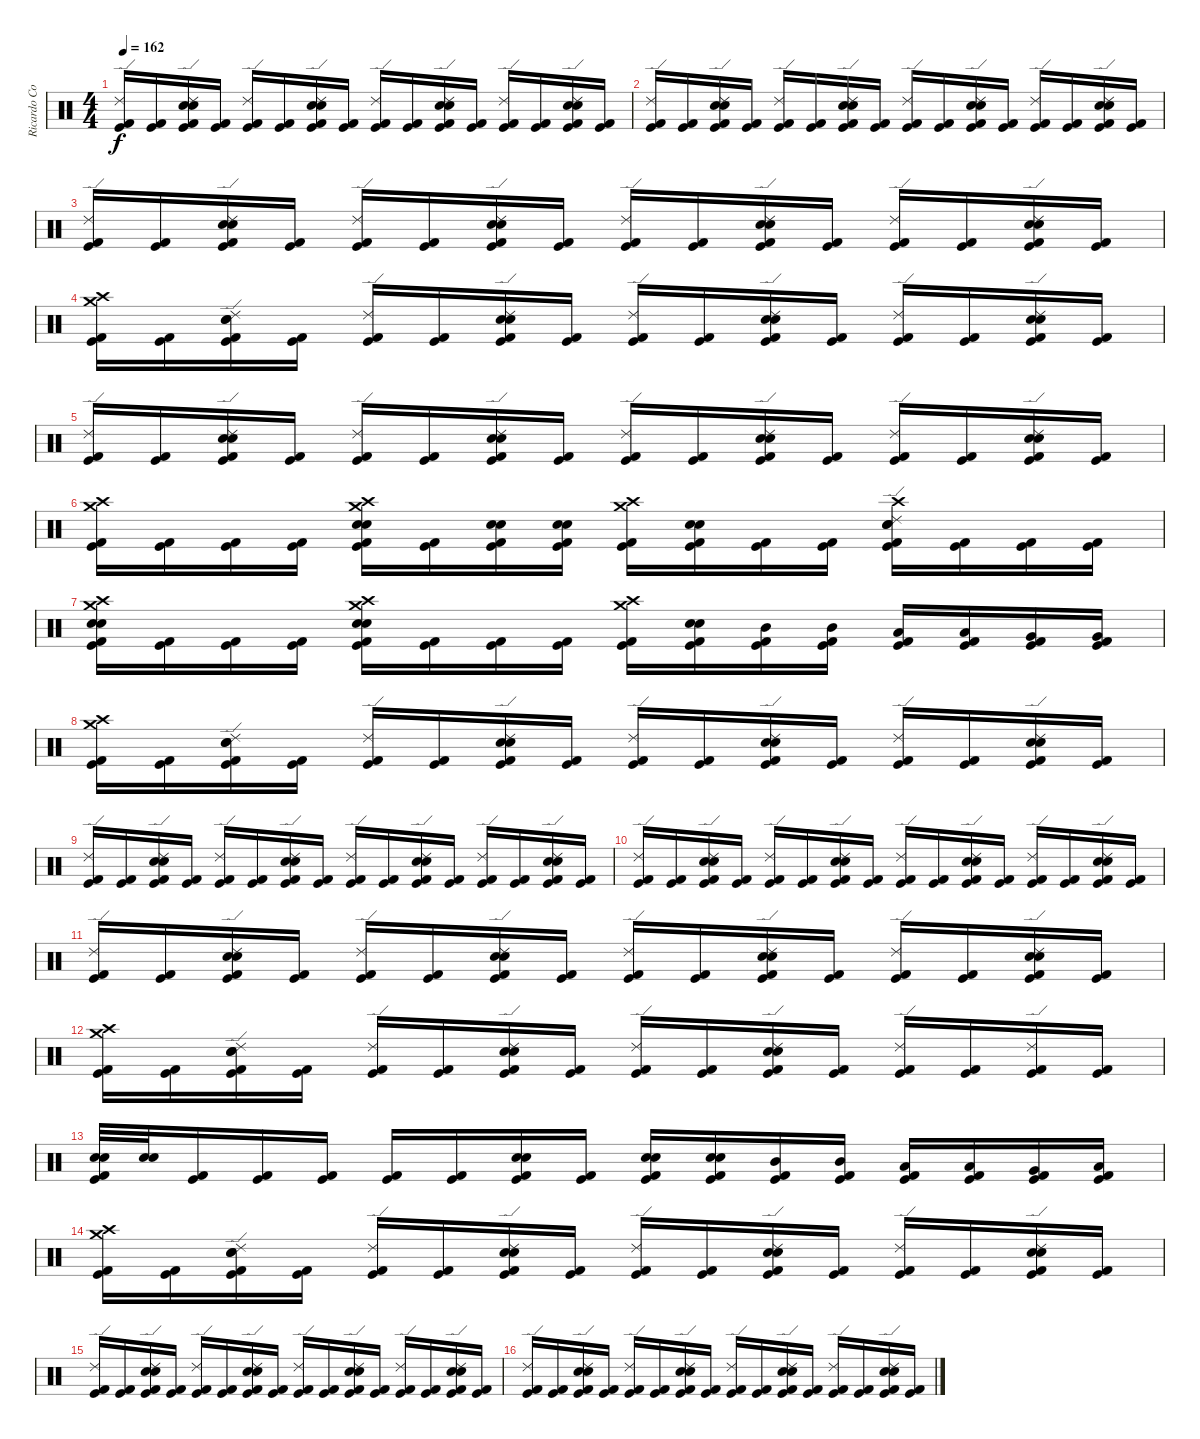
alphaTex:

\track ("Ricardo Confessori" "Ricardo Co") {instrument percussion}
\staff {score}
\articulation defaults
\ts (4 4)
\tempo 162
\clef neutral
\ks c
("Ride (edge) 2" "Kick (hit) 2" "Kick (hit)").16{dy f} ("Kick (hit) 2" "Kick (hit)").16 ("Ride (edge) 2" "Snare (hit) 2" "Electric Snare (hit)" "Kick (hit) 2" "Kick (hit)").16 ("Kick (hit) 2" "Kick (hit)").16 ("Ride (edge) 2" "Kick (hit) 2" "Kick (hit)").16 ("Kick (hit) 2" "Kick (hit)").16 ("Ride (edge) 2" "Electric Snare (hit)" "Snare (hit) 2" "Kick (hit) 2" "Kick (hit)").16 ("Kick (hit) 2" "Kick (hit)").16 ("Ride (edge) 2" "Kick (hit) 2" "Kick (hit)").16 ("Kick (hit) 2" "Kick (hit)").16 ("Ride (edge) 2" "Snare (hit) 2" "Electric Snare (hit)" "Kick (hit) 2" "Kick (hit)").16 ("Kick (hit) 2" "Kick (hit)").16 ("Ride (edge) 2" "Kick (hit) 2" "Kick (hit)").16 ("Kick (hit) 2" "Kick (hit)").16 ("Ride (edge) 2" "Electric Snare (hit)" "Snare (hit) 2" "Kick (hit) 2" "Kick (hit)").16 ("Kick (hit) 2" "Kick (hit)").16 |
("Ride (edge) 2" "Kick (hit) 2" "Kick (hit)").16 ("Kick (hit) 2" "Kick (hit)").16 ("Ride (edge) 2" "Snare (hit) 2" "Electric Snare (hit)" "Kick (hit) 2" "Kick (hit)").16 ("Kick (hit) 2" "Kick (hit)").16 ("Ride (edge) 2" "Kick (hit) 2" "Kick (hit)").16 ("Kick (hit) 2" "Kick (hit)").16 ("Ride (edge) 2" "Electric Snare (hit)" "Snare (hit) 2" "Kick (hit) 2" "Kick (hit)").16 ("Kick (hit) 2" "Kick (hit)").16 ("Ride (edge) 2" "Kick (hit) 2" "Kick (hit)").16 ("Kick (hit) 2" "Kick (hit)").16 ("Ride (edge) 2" "Snare (hit) 2" "Electric Snare (hit)" "Kick (hit) 2" "Kick (hit)").16 ("Kick (hit) 2" "Kick (hit)").16 ("Ride (edge) 2" "Kick (hit) 2" "Kick (hit)").16 ("Kick (hit) 2" "Kick (hit)").16 ("Ride (edge) 2" "Electric Snare (hit)" "Snare (hit) 2" "Kick (hit) 2" "Kick (hit)").16 ("Kick (hit) 2" "Kick (hit)").16 |
("Ride (edge) 2" "Kick (hit) 2" "Kick (hit)").16 ("Kick (hit) 2" "Kick (hit)").16 ("Ride (edge) 2" "Snare (hit) 2" "Electric Snare (hit)" "Kick (hit) 2" "Kick (hit)").16 ("Kick (hit) 2" "Kick (hit)").16 ("Ride (edge) 2" "Kick (hit) 2" "Kick (hit)").16 ("Kick (hit) 2" "Kick (hit)").16 ("Ride (edge) 2" "Electric Snare (hit)" "Snare (hit) 2" "Kick (hit) 2" "Kick (hit)").16 ("Kick (hit) 2" "Kick (hit)").16 ("Ride (edge) 2" "Kick (hit) 2" "Kick (hit)").16 ("Kick (hit) 2" "Kick (hit)").16 ("Ride (edge) 2" "Snare (hit) 2" "Electric Snare (hit)" "Kick (hit) 2" "Kick (hit)").16 ("Kick (hit) 2" "Kick (hit)").16 ("Ride (edge) 2" "Kick (hit) 2" "Kick (hit)").16 ("Kick (hit) 2" "Kick (hit)").16 ("Ride (edge) 2" "Electric Snare (hit)" "Snare (hit) 2" "Kick (hit) 2" "Kick (hit)").16 ("Kick (hit) 2" "Kick (hit)").16 |
("Crash high (hit)" "Crash medium (hit)" "Kick (hit) 2" "Kick (hit)").16 ("Kick (hit) 2" "Kick (hit)").16 ("Ride (edge) 2" "Snare (hit) 2" "Electric Snare (hit)" "Kick (hit) 2" "Kick (hit)").16 ("Kick (hit) 2" "Kick (hit)").16 ("Ride (edge) 2" "Kick (hit) 2" "Kick (hit)").16 ("Kick (hit) 2" "Kick (hit)").16 ("Ride (edge) 2" "Electric Snare (hit)" "Snare (hit) 2" "Kick (hit) 2" "Kick (hit)").16 ("Kick (hit) 2" "Kick (hit)").16 ("Ride (edge) 2" "Kick (hit) 2" "Kick (hit)").16 ("Kick (hit) 2" "Kick (hit)").16 ("Ride (edge) 2" "Snare (hit) 2" "Electric Snare (hit)" "Kick (hit) 2" "Kick (hit)").16 ("Kick (hit) 2" "Kick (hit)").16 ("Ride (edge) 2" "Kick (hit) 2" "Kick (hit)").16 ("Kick (hit) 2" "Kick (hit)").16 ("Ride (edge) 2" "Electric Snare (hit)" "Snare (hit) 2" "Kick (hit) 2" "Kick (hit)").16 ("Kick (hit) 2" "Kick (hit)").16 |
("Ride (edge) 2" "Kick (hit) 2" "Kick (hit)").16 ("Kick (hit) 2" "Kick (hit)").16 ("Ride (edge) 2" "Snare (hit) 2" "Electric Snare (hit)" "Kick (hit) 2" "Kick (hit)").16 ("Kick (hit) 2" "Kick (hit)").16 ("Ride (edge) 2" "Kick (hit) 2" "Kick (hit)").16 ("Kick (hit) 2" "Kick (hit)").16 ("Ride (edge) 2" "Electric Snare (hit)" "Snare (hit) 2" "Kick (hit) 2" "Kick (hit)").16 ("Kick (hit) 2" "Kick (hit)").16 ("Ride (edge) 2" "Kick (hit) 2" "Kick (hit)").16 ("Kick (hit) 2" "Kick (hit)").16 ("Ride (edge) 2" "Snare (hit) 2" "Electric Snare (hit)" "Kick (hit) 2" "Kick (hit)").16 ("Kick (hit) 2" "Kick (hit)").16 ("Ride (edge) 2" "Kick (hit) 2" "Kick (hit)").16 ("Kick (hit) 2" "Kick (hit)").16 ("Ride (edge) 2" "Electric Snare (hit)" "Snare (hit) 2" "Kick (hit) 2" "Kick (hit)").16 ("Kick (hit) 2" "Kick (hit)").16 |
("Crash high (hit)" "Crash medium (hit)" "Kick (hit) 2" "Kick (hit)").16 ("Kick (hit) 2" "Kick (hit)").16 ("Kick (hit) 2" "Kick (hit)").16 ("Kick (hit) 2" "Kick (hit)").16 ("Electric Snare (hit)" "Snare (hit) 2" "Crash high (hit)" "Crash medium (hit)" "Kick (hit) 2" "Kick (hit)").16 ("Kick (hit) 2" "Kick (hit)").16 ("Snare (hit) 2" "Electric Snare (hit)" "Kick (hit) 2" "Kick (hit)").16 ("Electric Snare (hit)" "Snare (hit) 2" "Kick (hit) 2" "Kick (hit)").16 ("Crash high (hit)" "Crash medium (hit)" "Kick (hit) 2" "Kick (hit)").16 ("Electric Snare (hit)" "Snare (hit) 2" "Kick (hit) 2" "Kick (hit)").16 ("Kick (hit) 2" "Kick (hit)").16 ("Kick (hit) 2" "Kick (hit)").16 ("Electric Snare (hit)" "Crash high (hit)" "Snare (hit) 2" "Ride (edge) 2" "Kick (hit) 2" "Kick (hit)").16 ("Kick (hit) 2" "Kick (hit)").16 ("Kick (hit) 2" "Kick (hit)").16 ("Kick (hit) 2" "Kick (hit)").16 |
("Electric Snare (hit)" "Snare (hit) 2" "Crash high (hit)" "Crash medium (hit)" "Kick (hit) 2" "Kick (hit)").16 ("Kick (hit) 2" "Kick (hit)").16 ("Kick (hit) 2" "Kick (hit)").16 ("Kick (hit) 2" "Kick (hit)").16 ("Crash high (hit)" "Electric Snare (hit)" "Snare (hit) 2" "Crash medium (hit)" "Kick (hit) 2" "Kick (hit)").16 ("Kick (hit) 2" "Kick (hit)").16 ("Kick (hit) 2" "Kick (hit)").16 ("Kick (hit) 2" "Kick (hit)").16 ("Crash high (hit)" "Crash medium (hit)" "Kick (hit) 2" "Kick (hit)").16 ("Snare (hit) 2" "Electric Snare (hit)" "Kick (hit) 2" "Kick (hit)").16 ("Mid Tom (hit)" "Kick (hit) 2" "Kick (hit)").16 ("Mid Tom (hit)" "Kick (hit) 2" "Kick (hit)").16 ("Low Tom (hit)" "Kick (hit) 2" "Kick (hit)").16 ("Low Tom (hit)" "Kick (hit) 2" "Kick (hit)").16 ("Very Low Tom (hit)" "Kick (hit) 2" "Kick (hit)").16 ("Very Low Tom (hit)" "Kick (hit) 2" "Kick (hit)").16 |
("Crash high (hit)" "Crash medium (hit)" "Kick (hit) 2" "Kick (hit)").16 ("Kick (hit) 2" "Kick (hit)").16 ("Ride (edge) 2" "Snare (hit) 2" "Electric Snare (hit)" "Kick (hit) 2" "Kick (hit)").16 ("Kick (hit) 2" "Kick (hit)").16 ("Ride (edge) 2" "Kick (hit) 2" "Kick (hit)").16 ("Kick (hit) 2" "Kick (hit)").16 ("Ride (edge) 2" "Electric Snare (hit)" "Snare (hit) 2" "Kick (hit) 2" "Kick (hit)").16 ("Kick (hit) 2" "Kick (hit)").16 ("Ride (edge) 2" "Kick (hit) 2" "Kick (hit)").16 ("Kick (hit) 2" "Kick (hit)").16 ("Ride (edge) 2" "Snare (hit) 2" "Electric Snare (hit)" "Kick (hit) 2" "Kick (hit)").16 ("Kick (hit) 2" "Kick (hit)").16 ("Ride (edge) 2" "Kick (hit) 2" "Kick (hit)").16 ("Kick (hit) 2" "Kick (hit)").16 ("Ride (edge) 2" "Electric Snare (hit)" "Snare (hit) 2" "Kick (hit) 2" "Kick (hit)").16 ("Kick (hit) 2" "Kick (hit)").16 |
("Ride (edge) 2" "Kick (hit) 2" "Kick (hit)").16 ("Kick (hit) 2" "Kick (hit)").16 ("Ride (edge) 2" "Snare (hit) 2" "Electric Snare (hit)" "Kick (hit) 2" "Kick (hit)").16 ("Kick (hit) 2" "Kick (hit)").16 ("Ride (edge) 2" "Kick (hit) 2" "Kick (hit)").16 ("Kick (hit) 2" "Kick (hit)").16 ("Ride (edge) 2" "Electric Snare (hit)" "Snare (hit) 2" "Kick (hit) 2" "Kick (hit)").16 ("Kick (hit) 2" "Kick (hit)").16 ("Ride (edge) 2" "Kick (hit) 2" "Kick (hit)").16 ("Kick (hit) 2" "Kick (hit)").16 ("Ride (edge) 2" "Snare (hit) 2" "Electric Snare (hit)" "Kick (hit) 2" "Kick (hit)").16 ("Kick (hit) 2" "Kick (hit)").16 ("Ride (edge) 2" "Kick (hit) 2" "Kick (hit)").16 ("Kick (hit) 2" "Kick (hit)").16 ("Ride (edge) 2" "Electric Snare (hit)" "Snare (hit) 2" "Kick (hit) 2" "Kick (hit)").16 ("Kick (hit) 2" "Kick (hit)").16 |
("Ride (edge) 2" "Kick (hit) 2" "Kick (hit)").16 ("Kick (hit) 2" "Kick (hit)").16 ("Ride (edge) 2" "Snare (hit) 2" "Electric Snare (hit)" "Kick (hit) 2" "Kick (hit)").16 ("Kick (hit) 2" "Kick (hit)").16 ("Ride (edge) 2" "Kick (hit) 2" "Kick (hit)").16 ("Kick (hit) 2" "Kick (hit)").16 ("Ride (edge) 2" "Electric Snare (hit)" "Snare (hit) 2" "Kick (hit) 2" "Kick (hit)").16 ("Kick (hit) 2" "Kick (hit)").16 ("Ride (edge) 2" "Kick (hit) 2" "Kick (hit)").16 ("Kick (hit) 2" "Kick (hit)").16 ("Ride (edge) 2" "Snare (hit) 2" "Electric Snare (hit)" "Kick (hit) 2" "Kick (hit)").16 ("Kick (hit) 2" "Kick (hit)").16 ("Ride (edge) 2" "Kick (hit) 2" "Kick (hit)").16 ("Kick (hit) 2" "Kick (hit)").16 ("Ride (edge) 2" "Electric Snare (hit)" "Snare (hit) 2" "Kick (hit) 2" "Kick (hit)").16 ("Kick (hit) 2" "Kick (hit)").16 |
("Ride (edge) 2" "Kick (hit) 2" "Kick (hit)").16 ("Kick (hit) 2" "Kick (hit)").16 ("Ride (edge) 2" "Snare (hit) 2" "Electric Snare (hit)" "Kick (hit) 2" "Kick (hit)").16 ("Kick (hit) 2" "Kick (hit)").16 ("Ride (edge) 2" "Kick (hit) 2" "Kick (hit)").16 ("Kick (hit) 2" "Kick (hit)").16 ("Ride (edge) 2" "Electric Snare (hit)" "Snare (hit) 2" "Kick (hit) 2" "Kick (hit)").16 ("Kick (hit) 2" "Kick (hit)").16 ("Ride (edge) 2" "Kick (hit) 2" "Kick (hit)").16 ("Kick (hit) 2" "Kick (hit)").16 ("Ride (edge) 2" "Snare (hit) 2" "Electric Snare (hit)" "Kick (hit) 2" "Kick (hit)").16 ("Kick (hit) 2" "Kick (hit)").16 ("Ride (edge) 2" "Kick (hit) 2" "Kick (hit)").16 ("Kick (hit) 2" "Kick (hit)").16 ("Ride (edge) 2" "Electric Snare (hit)" "Snare (hit) 2" "Kick (hit) 2" "Kick (hit)").16 ("Kick (hit) 2" "Kick (hit)").16 |
("Crash high (hit)" "Crash medium (hit)" "Kick (hit) 2" "Kick (hit)").16 ("Kick (hit) 2" "Kick (hit)").16 ("Ride (edge) 2" "Snare (hit) 2" "Electric Snare (hit)" "Kick (hit) 2" "Kick (hit)").16 ("Kick (hit) 2" "Kick (hit)").16 ("Ride (edge) 2" "Kick (hit) 2" "Kick (hit)").16 ("Kick (hit) 2" "Kick (hit)").16 ("Ride (edge) 2" "Electric Snare (hit)" "Snare (hit) 2" "Kick (hit) 2" "Kick (hit)").16 ("Kick (hit) 2" "Kick (hit)").16 ("Ride (edge) 2" "Kick (hit) 2" "Kick (hit)").16 ("Kick (hit) 2" "Kick (hit)").16 ("Ride (edge) 2" "Snare (hit) 2" "Electric Snare (hit)" "Kick (hit) 2" "Kick (hit)").16 ("Kick (hit) 2" "Kick (hit)").16 ("Ride (edge) 2" "Kick (hit) 2" "Kick (hit)").16 ("Kick (hit) 2" "Kick (hit)").16 ("Ride (edge) 2" "Kick (hit) 2" "Kick (hit)").16 ("Kick (hit) 2" "Kick (hit)").16 |
("Electric Snare (hit)" "Kick (hit) 2" "Kick (hit)" "Snare (hit) 2").32 ("Electric Snare (hit)" "Snare (hit) 2").32 ("Kick (hit) 2" "Kick (hit)").16 ("Kick (hit) 2" "Kick (hit)").16 ("Kick (hit) 2" "Kick (hit)").16 ("Kick (hit) 2" "Kick (hit)").16 ("Kick (hit) 2" "Kick (hit)").16 ("Electric Snare (hit)" "Snare (hit) 2" "Kick (hit) 2" "Kick (hit)").16 ("Kick (hit) 2" "Kick (hit)").16 ("Electric Snare (hit)" "Snare (hit) 2" "Kick (hit)" "Kick (hit) 2").16 ("Electric Snare (hit)" "Snare (hit) 2" "Kick (hit) 2" "Kick (hit)").16 ("Mid Tom (hit)" "Kick (hit) 2" "Kick (hit)").16 ("Mid Tom (hit)" "Kick (hit) 2" "Kick (hit)").16 ("Low Tom (hit)" "Kick (hit) 2" "Kick (hit)").16 ("Low Tom (hit)" "Kick (hit) 2" "Kick (hit)").16 ("Very Low Tom (hit)" "Kick (hit) 2" "Kick (hit)").16 ("Low Floor Tom (hit)" "Kick (hit) 2" "Kick (hit)").16 |
("Crash high (hit)" "Crash medium (hit)" "Kick (hit) 2" "Kick (hit)").16 ("Kick (hit) 2" "Kick (hit)").16 ("Ride (edge) 2" "Snare (hit) 2" "Electric Snare (hit)" "Kick (hit) 2" "Kick (hit)").16 ("Kick (hit) 2" "Kick (hit)").16 ("Ride (edge) 2" "Kick (hit) 2" "Kick (hit)").16 ("Kick (hit) 2" "Kick (hit)").16 ("Ride (edge) 2" "Electric Snare (hit)" "Snare (hit) 2" "Kick (hit) 2" "Kick (hit)").16 ("Kick (hit) 2" "Kick (hit)").16 ("Ride (edge) 2" "Kick (hit) 2" "Kick (hit)").16 ("Kick (hit) 2" "Kick (hit)").16 ("Ride (edge) 2" "Snare (hit) 2" "Electric Snare (hit)" "Kick (hit) 2" "Kick (hit)").16 ("Kick (hit) 2" "Kick (hit)").16 ("Ride (edge) 2" "Kick (hit) 2" "Kick (hit)").16 ("Kick (hit) 2" "Kick (hit)").16 ("Ride (edge) 2" "Electric Snare (hit)" "Snare (hit) 2" "Kick (hit) 2" "Kick (hit)").16 ("Kick (hit) 2" "Kick (hit)").16 |
("Ride (edge) 2" "Kick (hit) 2" "Kick (hit)").16 ("Kick (hit) 2" "Kick (hit)").16 ("Ride (edge) 2" "Snare (hit) 2" "Electric Snare (hit)" "Kick (hit) 2" "Kick (hit)").16 ("Kick (hit) 2" "Kick (hit)").16 ("Ride (edge) 2" "Kick (hit) 2" "Kick (hit)").16 ("Kick (hit) 2" "Kick (hit)").16 ("Ride (edge) 2" "Electric Snare (hit)" "Snare (hit) 2" "Kick (hit) 2" "Kick (hit)").16 ("Kick (hit) 2" "Kick (hit)").16 ("Ride (edge) 2" "Kick (hit) 2" "Kick (hit)").16 ("Kick (hit) 2" "Kick (hit)").16 ("Ride (edge) 2" "Snare (hit) 2" "Electric Snare (hit)" "Kick (hit) 2" "Kick (hit)").16 ("Kick (hit) 2" "Kick (hit)").16 ("Ride (edge) 2" "Kick (hit) 2" "Kick (hit)").16 ("Kick (hit) 2" "Kick (hit)").16 ("Ride (edge) 2" "Electric Snare (hit)" "Snare (hit) 2" "Kick (hit) 2" "Kick (hit)").16 ("Kick (hit) 2" "Kick (hit)").16 |
("Ride (edge) 2" "Kick (hit) 2" "Kick (hit)").16 ("Kick (hit) 2" "Kick (hit)").16 ("Ride (edge) 2" "Snare (hit) 2" "Electric Snare (hit)" "Kick (hit) 2" "Kick (hit)").16 ("Kick (hit) 2" "Kick (hit)").16 ("Ride (edge) 2" "Kick (hit) 2" "Kick (hit)").16 ("Kick (hit) 2" "Kick (hit)").16 ("Ride (edge) 2" "Electric Snare (hit)" "Snare (hit) 2" "Kick (hit) 2" "Kick (hit)").16 ("Kick (hit) 2" "Kick (hit)").16 ("Ride (edge) 2" "Kick (hit) 2" "Kick (hit)").16 ("Kick (hit) 2" "Kick (hit)").16 ("Ride (edge) 2" "Snare (hit) 2" "Electric Snare (hit)" "Kick (hit) 2" "Kick (hit)").16 ("Kick (hit) 2" "Kick (hit)").16 ("Ride (edge) 2" "Kick (hit) 2" "Kick (hit)").16 ("Kick (hit) 2" "Kick (hit)").16 ("Ride (edge) 2" "Electric Snare (hit)" "Snare (hit) 2" "Kick (hit) 2" "Kick (hit)").16 ("Kick (hit) 2" "Kick (hit)").16
